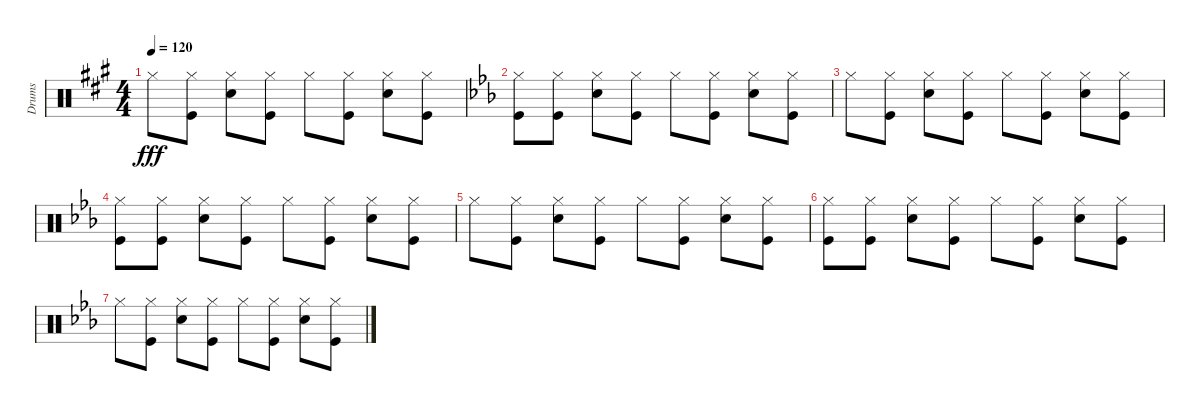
\track ("Drums" "Drums") {instrument percussion}
\staff {score}
\articulation defaults
\ts (4 4)
\tempo 120
\clef neutral
\ks a "Hi-Hat (closed)".8{dy fff}
("Hi-Hat (closed)" "Kick (hit)").8 ("Hi-Hat (closed)" "Snare (hit) 2").8 ("Hi-Hat (closed)" "Kick (hit)").8 "Hi-Hat (closed)".8 ("Hi-Hat (closed)" "Kick (hit)").8 ("Hi-Hat (closed)" "Snare (hit) 2").8 ("Hi-Hat (closed)" "Kick (hit)").8 |
\ks eb
("Hi-Hat (closed)" "Kick (hit)").8 ("Hi-Hat (closed)" "Kick (hit)").8 ("Hi-Hat (closed)" "Snare (hit) 2").8 ("Hi-Hat (closed)" "Kick (hit)").8 "Hi-Hat (closed)".8 ("Hi-Hat (closed)" "Kick (hit)").8 ("Hi-Hat (closed)" "Snare (hit) 2").8 ("Hi-Hat (closed)" "Kick (hit)").8 |
"Hi-Hat (closed)".8 ("Hi-Hat (closed)" "Kick (hit)").8 ("Hi-Hat (closed)" "Snare (hit) 2").8 ("Hi-Hat (closed)" "Kick (hit)").8 "Hi-Hat (closed)".8 ("Hi-Hat (closed)" "Kick (hit)").8 ("Hi-Hat (closed)" "Snare (hit) 2").8 ("Hi-Hat (closed)" "Kick (hit)").8 |
("Hi-Hat (closed)" "Kick (hit)").8 ("Hi-Hat (closed)" "Kick (hit)").8 ("Hi-Hat (closed)" "Snare (hit) 2").8 ("Hi-Hat (closed)" "Kick (hit)").8 "Hi-Hat (closed)".8 ("Hi-Hat (closed)" "Kick (hit)").8 ("Hi-Hat (closed)" "Snare (hit) 2").8 ("Hi-Hat (closed)" "Kick (hit)").8 |
"Hi-Hat (closed)".8 ("Hi-Hat (closed)" "Kick (hit)").8 ("Hi-Hat (closed)" "Snare (hit) 2").8 ("Hi-Hat (closed)" "Kick (hit)").8 "Hi-Hat (closed)".8 ("Hi-Hat (closed)" "Kick (hit)").8 ("Hi-Hat (closed)" "Snare (hit) 2").8 ("Hi-Hat (closed)" "Kick (hit)").8 |
("Hi-Hat (closed)" "Kick (hit)").8 ("Hi-Hat (closed)" "Kick (hit)").8 ("Hi-Hat (closed)" "Snare (hit) 2").8 ("Hi-Hat (closed)" "Kick (hit)").8 "Hi-Hat (closed)".8 ("Hi-Hat (closed)" "Kick (hit)").8 ("Hi-Hat (closed)" "Snare (hit) 2").8 ("Hi-Hat (closed)" "Kick (hit)").8 |
"Hi-Hat (closed)".8 ("Hi-Hat (closed)" "Kick (hit)").8 ("Hi-Hat (closed)" "Snare (hit) 2").8 ("Hi-Hat (closed)" "Kick (hit)").8 "Hi-Hat (closed)".8 ("Hi-Hat (closed)" "Kick (hit)").8 ("Hi-Hat (closed)" "Snare (hit) 2").8 ("Hi-Hat (closed)" "Kick (hit)").8
